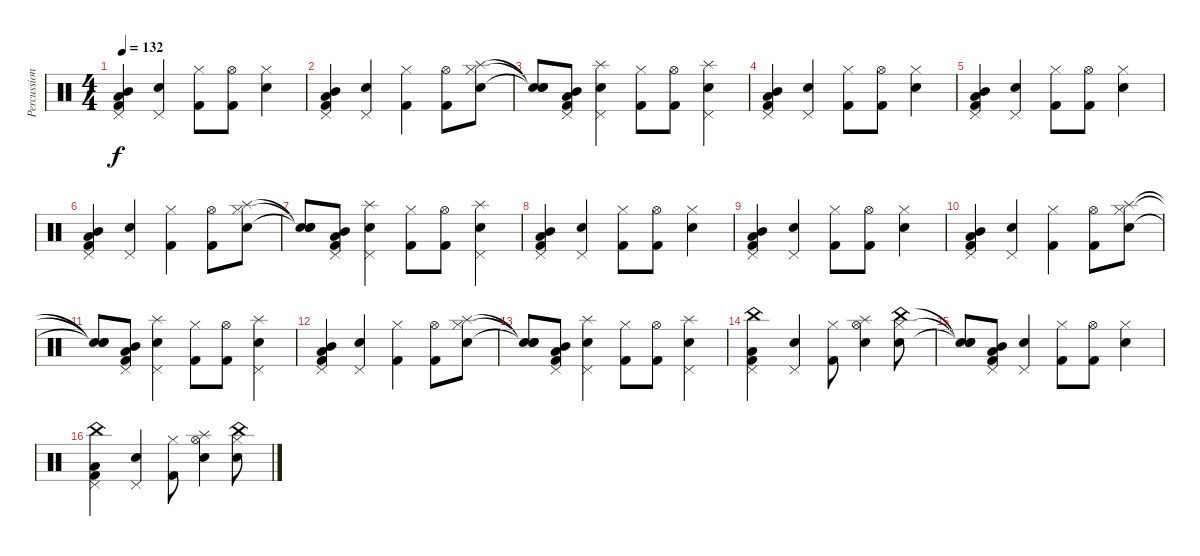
\track ("Percussions" "Percussion") {instrument percussion}
\staff {score}
\articulation defaults
\ts (4 4)
\tempo 132
\clef neutral
\ks c
("Pedal Hi-Hat (hit)" "Mid Tom (hit)" "Low Tom (hit)" "Kick (hit) 2").4{dy f} ("Pedal Hi-Hat (hit)" "Snare (hit) 2").4 ("Hi-Hat (closed)" "Kick (hit) 2").8 ("Hi-Hat (open)" "Kick (hit) 2").8 ("Hi-Hat (closed)" "Snare (hit) 2").4 |
("Pedal Hi-Hat (hit)" "Mid Tom (hit)" "Low Tom (hit)" "Kick (hit) 2").4 ("Pedal Hi-Hat (hit)" "Snare (hit) 2").4 ("Hi-Hat (closed)" "Kick (hit) 2").4 ("Hi-Hat (open)" "Kick (hit) 2").8 ("Hi-Hat (closed)" "Splash (hit)" "Snare (hit) 2").8 |
("Snare (hit)"{t} "Snare (hit)"{t} "Snare (hit)"{t}).8 ("Pedal Hi-Hat (hit)" "Mid Tom (hit)" "Low Tom (hit)" "Kick (hit) 2").8 ("Pedal Hi-Hat (hit)" "Splash (hit)" "Snare (hit) 2").4 ("Hi-Hat (closed)" "Kick (hit) 2").8 ("Hi-Hat (open)" "Kick (hit) 2").8 ("Pedal Hi-Hat (hit)" "Splash (hit)" "Snare (hit) 2").4 |
("Pedal Hi-Hat (hit)" "Mid Tom (hit)" "Low Tom (hit)" "Kick (hit) 2").4 ("Pedal Hi-Hat (hit)" "Snare (hit) 2").4 ("Hi-Hat (closed)" "Kick (hit) 2").8 ("Hi-Hat (open)" "Kick (hit) 2").8 ("Hi-Hat (closed)" "Snare (hit) 2").4 |
("Pedal Hi-Hat (hit)" "Mid Tom (hit)" "Low Tom (hit)" "Kick (hit) 2").4 ("Pedal Hi-Hat (hit)" "Snare (hit) 2").4 ("Hi-Hat (closed)" "Kick (hit) 2").8 ("Hi-Hat (open)" "Kick (hit) 2").8 ("Hi-Hat (closed)" "Snare (hit) 2").4 |
("Pedal Hi-Hat (hit)" "Mid Tom (hit)" "Low Tom (hit)" "Kick (hit) 2").4 ("Pedal Hi-Hat (hit)" "Snare (hit) 2").4 ("Hi-Hat (closed)" "Kick (hit) 2").4 ("Hi-Hat (open)" "Kick (hit) 2").8 ("Hi-Hat (closed)" "Splash (hit)" "Snare (hit) 2").8 |
("Snare (hit)"{t} "Snare (hit)"{t} "Snare (hit)"{t}).8 ("Pedal Hi-Hat (hit)" "Mid Tom (hit)" "Low Tom (hit)" "Kick (hit) 2").8 ("Pedal Hi-Hat (hit)" "Splash (hit)" "Snare (hit) 2").4 ("Hi-Hat (closed)" "Kick (hit) 2").8 ("Hi-Hat (open)" "Kick (hit) 2").8 ("Pedal Hi-Hat (hit)" "Splash (hit)" "Snare (hit) 2").4 |
("Pedal Hi-Hat (hit)" "Mid Tom (hit)" "Low Tom (hit)" "Kick (hit) 2").4 ("Pedal Hi-Hat (hit)" "Snare (hit) 2").4 ("Hi-Hat (closed)" "Kick (hit) 2").8 ("Hi-Hat (open)" "Kick (hit) 2").8 ("Hi-Hat (closed)" "Snare (hit) 2").4 |
("Pedal Hi-Hat (hit)" "Mid Tom (hit)" "Low Tom (hit)" "Kick (hit) 2").4 ("Pedal Hi-Hat (hit)" "Snare (hit) 2").4 ("Hi-Hat (closed)" "Kick (hit) 2").8 ("Hi-Hat (open)" "Kick (hit) 2").8 ("Hi-Hat (closed)" "Snare (hit) 2").4 |
("Pedal Hi-Hat (hit)" "Mid Tom (hit)" "Low Tom (hit)" "Kick (hit) 2").4 ("Pedal Hi-Hat (hit)" "Snare (hit) 2").4 ("Hi-Hat (closed)" "Kick (hit) 2").4 ("Hi-Hat (open)" "Kick (hit) 2").8 ("Hi-Hat (closed)" "Splash (hit)" "Snare (hit) 2").8 |
("Snare (hit)"{t} "Snare (hit)"{t} "Snare (hit)"{t}).8 ("Pedal Hi-Hat (hit)" "Mid Tom (hit)" "Low Tom (hit)" "Kick (hit) 2").8 ("Pedal Hi-Hat (hit)" "Splash (hit)" "Snare (hit) 2").4 ("Hi-Hat (closed)" "Kick (hit) 2").8 ("Hi-Hat (open)" "Kick (hit) 2").8 ("Pedal Hi-Hat (hit)" "Splash (hit)" "Snare (hit) 2").4 |
("Pedal Hi-Hat (hit)" "Mid Tom (hit)" "Low Tom (hit)" "Kick (hit) 2").4 ("Pedal Hi-Hat (hit)" "Snare (hit) 2").4 ("Hi-Hat (closed)" "Kick (hit) 2").4 ("Hi-Hat (open)" "Kick (hit) 2").8 ("Hi-Hat (closed)" "Splash (hit)" "Snare (hit) 2").8 |
("Snare (hit)"{t} "Snare (hit)"{t} "Snare (hit)"{t}).8 ("Pedal Hi-Hat (hit)" "Mid Tom (hit)" "Low Tom (hit)" "Kick (hit) 2").8 ("Pedal Hi-Hat (hit)" "Splash (hit)" "Snare (hit) 2").4 ("Hi-Hat (closed)" "Kick (hit) 2").8 ("Hi-Hat (open)" "Kick (hit) 2").8 ("Pedal Hi-Hat (hit)" "Splash (hit)" "Snare (hit) 2").4 |
("Pedal Hi-Hat (hit)" "China (hit)" "Low Tom (hit)" "Kick (hit) 2").4 ("Pedal Hi-Hat (hit)" "Snare (hit) 2").4 ("Hi-Hat (closed)" "Kick (hit) 2").8 ("Hi-Hat (open)" "Splash (hit)" "Snare (hit) 2").4 ("Hi-Hat (closed)" "China (hit)" "Snare (hit) 2").8 |
("Snare (hit)"{t} "Snare (hit)"{t} "Snare (hit)"{t}).8 ("Pedal Hi-Hat (hit)" "Mid Tom (hit)" "Low Tom (hit)" "Kick (hit) 2").8 ("Pedal Hi-Hat (hit)" "Snare (hit) 2").4 ("Hi-Hat (closed)" "Kick (hit) 2").8 ("Hi-Hat (open)" "Kick (hit) 2").8 ("Hi-Hat (closed)" "Snare (hit) 2").4 |
("Pedal Hi-Hat (hit)" "China (hit)" "Low Tom (hit)" "Kick (hit) 2").4 ("Pedal Hi-Hat (hit)" "Snare (hit) 2").4 ("Hi-Hat (closed)" "Kick (hit) 2").8 ("Hi-Hat (open)" "Splash (hit)" "Snare (hit) 2").4 ("Hi-Hat (closed)" "China (hit)" "Snare (hit) 2").8
